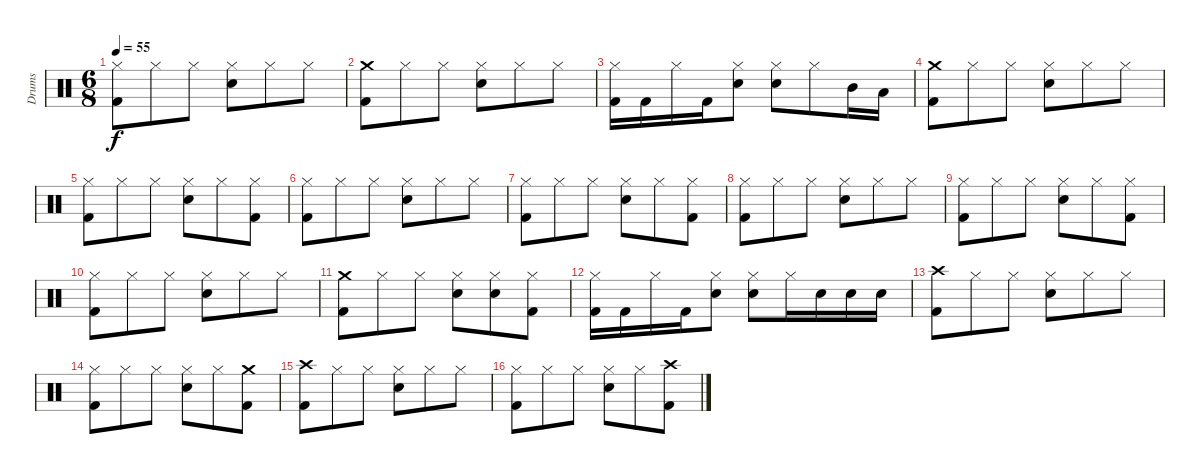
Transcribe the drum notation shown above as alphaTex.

\track ("Drums" "Drums") {instrument percussion}
\staff {score}
\articulation defaults
\ts (6 8)
\tempo 55
\clef neutral
\ks c
("Hi-Hat (closed)" "Kick (hit) 2").8{dy f} "Hi-Hat (closed)".8 "Hi-Hat (closed)".8 ("Hi-Hat (closed)" "Snare (hit) 2").8 "Hi-Hat (closed)".8 "Hi-Hat (closed)".8 |
("Crash medium (hit)" "Kick (hit) 2").8 "Hi-Hat (closed)".8 "Hi-Hat (closed)".8 ("Hi-Hat (closed)" "Snare (hit) 2").8 "Hi-Hat (closed)".8 "Hi-Hat (closed)".8 |
("Hi-Hat (closed)" "Kick (hit) 2").16 "Kick (hit) 2".16 "Hi-Hat (closed)".16 "Kick (hit) 2".16 ("Hi-Hat (closed)" "Snare (hit) 2").8 ("Hi-Hat (closed)" "Snare (hit) 2").8 "Hi-Hat (closed)".8 "Mid Tom (hit)".16 "Low Tom (hit)".16 |
("Crash medium (hit)" "Kick (hit) 2").8 "Hi-Hat (closed)".8 "Hi-Hat (closed)".8 ("Hi-Hat (closed)" "Snare (hit) 2").8 "Hi-Hat (closed)".8 "Hi-Hat (closed)".8 |
("Hi-Hat (closed)" "Kick (hit) 2").8 "Hi-Hat (closed)".8 "Hi-Hat (closed)".8 ("Hi-Hat (closed)" "Snare (hit) 2").8 "Hi-Hat (closed)".8 ("Hi-Hat (closed)" "Kick (hit) 2").8 |
("Hi-Hat (closed)" "Kick (hit) 2").8 "Hi-Hat (closed)".8 "Hi-Hat (closed)".8 ("Hi-Hat (closed)" "Snare (hit) 2").8 "Hi-Hat (closed)".8 "Hi-Hat (closed)".8 |
("Hi-Hat (closed)" "Kick (hit) 2").8 "Hi-Hat (closed)".8 "Hi-Hat (closed)".8 ("Hi-Hat (closed)" "Snare (hit) 2").8 "Hi-Hat (closed)".8 ("Hi-Hat (closed)" "Kick (hit) 2").8 |
("Hi-Hat (closed)" "Kick (hit) 2").8 "Hi-Hat (closed)".8 "Hi-Hat (closed)".8 ("Hi-Hat (closed)" "Snare (hit) 2").8 "Hi-Hat (closed)".8 "Hi-Hat (closed)".8 |
("Hi-Hat (closed)" "Kick (hit) 2").8 "Hi-Hat (closed)".8 "Hi-Hat (closed)".8 ("Hi-Hat (closed)" "Snare (hit) 2").8 "Hi-Hat (closed)".8 ("Hi-Hat (closed)" "Kick (hit) 2").8 |
("Hi-Hat (closed)" "Kick (hit) 2").8 "Hi-Hat (closed)".8 "Hi-Hat (closed)".8 ("Hi-Hat (closed)" "Snare (hit) 2").8 "Hi-Hat (closed)".8 "Hi-Hat (closed)".8 |
("Crash medium (hit)" "Kick (hit) 2").8 "Hi-Hat (closed)".8 "Hi-Hat (closed)".8 ("Hi-Hat (closed)" "Snare (hit) 2").8 ("Hi-Hat (closed)" "Snare (hit) 2").8 ("Hi-Hat (closed)" "Kick (hit) 2").8 |
("Hi-Hat (closed)" "Kick (hit) 2").16 "Kick (hit) 2".16 "Hi-Hat (closed)".16 "Kick (hit) 2".16 ("Hi-Hat (closed)" "Snare (hit) 2").8 ("Hi-Hat (closed)" "Snare (hit) 2").8 "Hi-Hat (closed)".16 "Snare (hit) 2".16 "Snare (hit) 2".16 "Snare (hit) 2".16 |
("Crash high (hit)" "Kick (hit) 2").8 "Hi-Hat (closed)".8 "Hi-Hat (closed)".8 ("Hi-Hat (closed)" "Snare (hit) 2").8 "Hi-Hat (closed)".8 "Hi-Hat (closed)".8 |
("Hi-Hat (closed)" "Kick (hit) 2").8 "Hi-Hat (closed)".8 "Hi-Hat (closed)".8 ("Hi-Hat (closed)" "Snare (hit) 2").8 "Hi-Hat (closed)".8 ("Crash medium (hit)" "Kick (hit) 2").8 |
("Crash high (hit)" "Kick (hit) 2").8 "Hi-Hat (closed)".8 "Hi-Hat (closed)".8 ("Hi-Hat (closed)" "Snare (hit) 2").8 "Hi-Hat (closed)".8 "Hi-Hat (closed)".8 |
("Hi-Hat (closed)" "Kick (hit) 2").8 "Hi-Hat (closed)".8 "Hi-Hat (closed)".8 ("Hi-Hat (closed)" "Snare (hit) 2").8 "Hi-Hat (closed)".8 ("Crash high (hit)" "Kick (hit) 2").8
